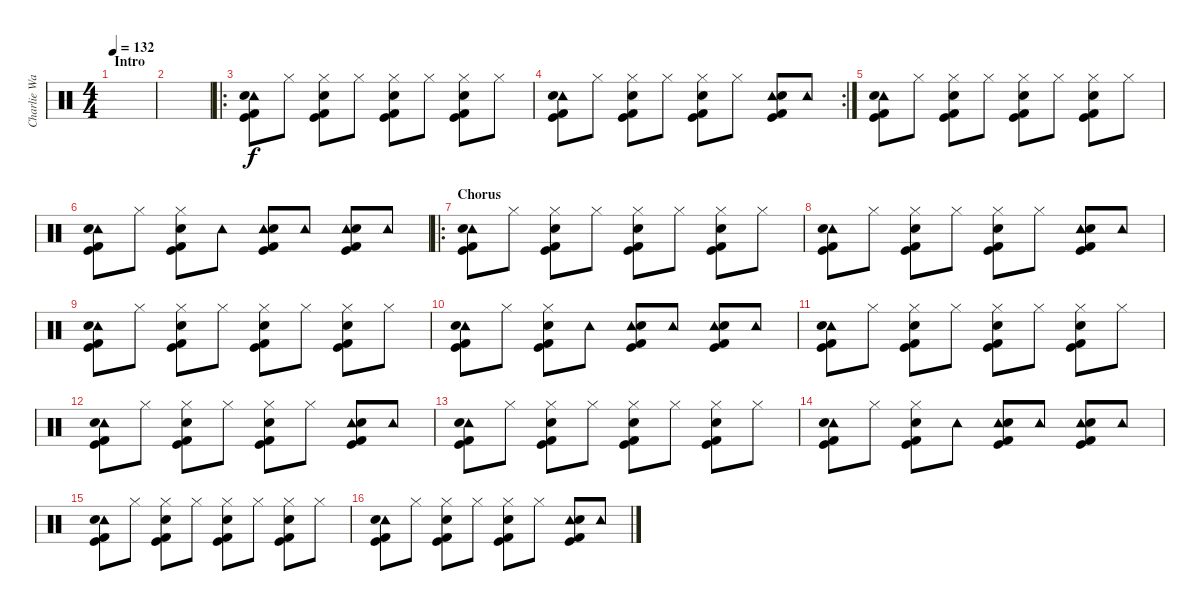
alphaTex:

\track ("Charlie Watts" "Charlie Wa") {instrument percussion}
\staff {score}
\articulation defaults
\ts (4 4)
\section ("" "Intro")
\tempo 132
\clef neutral
\ks c
|
|
\ro
("Tambourine (hit)" "Electric Snare (hit)" "Kick (hit) 2" "Kick (hit)").8 "Hi-Hat (closed)".8 ("Hi-Hat (closed)" "Electric Snare (hit)" "Kick (hit) 2" "Kick (hit)").8 "Hi-Hat (closed)".8 ("Hi-Hat (closed)" "Electric Snare (hit)" "Kick (hit) 2" "Kick (hit)").8 "Hi-Hat (closed)".8 ("Hi-Hat (closed)" "Electric Snare (hit)" "Kick (hit) 2" "Kick (hit)").8 "Hi-Hat (closed)".8 |
\rc 2
("Tambourine (hit)" "Electric Snare (hit)" "Kick (hit) 2" "Kick (hit)").8 "Hi-Hat (closed)".8 ("Hi-Hat (closed)" "Electric Snare (hit)" "Kick (hit) 2" "Kick (hit)").8 "Hi-Hat (closed)".8 ("Hi-Hat (closed)" "Electric Snare (hit)" "Kick (hit) 2" "Kick (hit)").8 "Hi-Hat (closed)".8 ("Tambourine (hit)" "Electric Snare (hit)" "Kick (hit) 2" "Kick (hit)").8 "Tambourine (hit)".8 |
("Tambourine (hit)" "Electric Snare (hit)" "Kick (hit) 2" "Kick (hit)").8 "Hi-Hat (closed)".8 ("Hi-Hat (closed)" "Electric Snare (hit)" "Kick (hit) 2" "Kick (hit)").8 "Hi-Hat (closed)".8 ("Hi-Hat (closed)" "Electric Snare (hit)" "Kick (hit) 2" "Kick (hit)").8 "Hi-Hat (closed)".8 ("Hi-Hat (closed)" "Electric Snare (hit)" "Kick (hit) 2" "Kick (hit)").8 "Hi-Hat (closed)".8 |
("Tambourine (hit)" "Electric Snare (hit)" "Kick (hit) 2" "Kick (hit)").8 "Hi-Hat (closed)".8 ("Hi-Hat (closed)" "Electric Snare (hit)" "Kick (hit) 2" "Kick (hit)").8 "Tambourine (hit)".8 ("Tambourine (hit)" "Electric Snare (hit)" "Kick (hit) 2" "Kick (hit)").8 "Tambourine (hit)".8 ("Tambourine (hit)" "Electric Snare (hit)" "Kick (hit) 2" "Kick (hit)").8 "Tambourine (hit)".8 |
\ro
\section ("" "Chorus")
("Tambourine (hit)" "Electric Snare (hit)" "Kick (hit) 2" "Kick (hit)").8 "Hi-Hat (closed)".8 ("Hi-Hat (closed)" "Electric Snare (hit)" "Kick (hit) 2" "Kick (hit)").8 "Hi-Hat (closed)".8 ("Hi-Hat (closed)" "Electric Snare (hit)" "Kick (hit) 2" "Kick (hit)").8 "Hi-Hat (closed)".8 ("Hi-Hat (closed)" "Electric Snare (hit)" "Kick (hit) 2" "Kick (hit)").8 "Hi-Hat (closed)".8 |
("Tambourine (hit)" "Electric Snare (hit)" "Kick (hit) 2" "Kick (hit)").8 "Hi-Hat (closed)".8 ("Hi-Hat (closed)" "Electric Snare (hit)" "Kick (hit) 2" "Kick (hit)").8 "Hi-Hat (closed)".8 ("Hi-Hat (closed)" "Electric Snare (hit)" "Kick (hit) 2" "Kick (hit)").8 "Hi-Hat (closed)".8 ("Tambourine (hit)" "Electric Snare (hit)" "Kick (hit) 2" "Kick (hit)").8 "Tambourine (hit)".8 |
("Tambourine (hit)" "Electric Snare (hit)" "Kick (hit) 2" "Kick (hit)").8 "Hi-Hat (closed)".8 ("Hi-Hat (closed)" "Electric Snare (hit)" "Kick (hit) 2" "Kick (hit)").8 "Hi-Hat (closed)".8 ("Hi-Hat (closed)" "Electric Snare (hit)" "Kick (hit) 2" "Kick (hit)").8 "Hi-Hat (closed)".8 ("Hi-Hat (closed)" "Electric Snare (hit)" "Kick (hit) 2" "Kick (hit)").8 "Hi-Hat (closed)".8 |
("Tambourine (hit)" "Electric Snare (hit)" "Kick (hit) 2" "Kick (hit)").8 "Hi-Hat (closed)".8 ("Hi-Hat (closed)" "Electric Snare (hit)" "Kick (hit) 2" "Kick (hit)").8 "Tambourine (hit)".8 ("Tambourine (hit)" "Electric Snare (hit)" "Kick (hit) 2" "Kick (hit)").8 "Tambourine (hit)".8 ("Tambourine (hit)" "Electric Snare (hit)" "Kick (hit) 2" "Kick (hit)").8 "Tambourine (hit)".8 |
("Tambourine (hit)" "Electric Snare (hit)" "Kick (hit) 2" "Kick (hit)").8 "Hi-Hat (closed)".8 ("Hi-Hat (closed)" "Electric Snare (hit)" "Kick (hit) 2" "Kick (hit)").8 "Hi-Hat (closed)".8 ("Hi-Hat (closed)" "Electric Snare (hit)" "Kick (hit) 2" "Kick (hit)").8 "Hi-Hat (closed)".8 ("Hi-Hat (closed)" "Electric Snare (hit)" "Kick (hit) 2" "Kick (hit)").8 "Hi-Hat (closed)".8 |
("Tambourine (hit)" "Electric Snare (hit)" "Kick (hit) 2" "Kick (hit)").8 "Hi-Hat (closed)".8 ("Hi-Hat (closed)" "Electric Snare (hit)" "Kick (hit) 2" "Kick (hit)").8 "Hi-Hat (closed)".8 ("Hi-Hat (closed)" "Electric Snare (hit)" "Kick (hit) 2" "Kick (hit)").8 "Hi-Hat (closed)".8 ("Tambourine (hit)" "Electric Snare (hit)" "Kick (hit) 2" "Kick (hit)").8 "Tambourine (hit)".8 |
("Tambourine (hit)" "Electric Snare (hit)" "Kick (hit) 2" "Kick (hit)").8 "Hi-Hat (closed)".8 ("Hi-Hat (closed)" "Electric Snare (hit)" "Kick (hit) 2" "Kick (hit)").8 "Hi-Hat (closed)".8 ("Hi-Hat (closed)" "Electric Snare (hit)" "Kick (hit) 2" "Kick (hit)").8 "Hi-Hat (closed)".8 ("Hi-Hat (closed)" "Electric Snare (hit)" "Kick (hit) 2" "Kick (hit)").8 "Hi-Hat (closed)".8 |
("Tambourine (hit)" "Electric Snare (hit)" "Kick (hit) 2" "Kick (hit)").8 "Hi-Hat (closed)".8 ("Hi-Hat (closed)" "Electric Snare (hit)" "Kick (hit) 2" "Kick (hit)").8 "Tambourine (hit)".8 ("Tambourine (hit)" "Electric Snare (hit)" "Kick (hit) 2" "Kick (hit)").8 "Tambourine (hit)".8 ("Tambourine (hit)" "Electric Snare (hit)" "Kick (hit) 2" "Kick (hit)").8 "Tambourine (hit)".8 |
("Tambourine (hit)" "Electric Snare (hit)" "Kick (hit) 2" "Kick (hit)").8 "Hi-Hat (closed)".8 ("Hi-Hat (closed)" "Electric Snare (hit)" "Kick (hit) 2" "Kick (hit)").8 "Hi-Hat (closed)".8 ("Hi-Hat (closed)" "Electric Snare (hit)" "Kick (hit) 2" "Kick (hit)").8 "Hi-Hat (closed)".8 ("Hi-Hat (closed)" "Electric Snare (hit)" "Kick (hit) 2" "Kick (hit)").8 "Hi-Hat (closed)".8 |
("Tambourine (hit)" "Electric Snare (hit)" "Kick (hit) 2" "Kick (hit)").8 "Hi-Hat (closed)".8 ("Hi-Hat (closed)" "Electric Snare (hit)" "Kick (hit) 2" "Kick (hit)").8 "Hi-Hat (closed)".8 ("Hi-Hat (closed)" "Electric Snare (hit)" "Kick (hit) 2" "Kick (hit)").8 "Hi-Hat (closed)".8 ("Tambourine (hit)" "Electric Snare (hit)" "Kick (hit) 2" "Kick (hit)").8 "Tambourine (hit)".8
